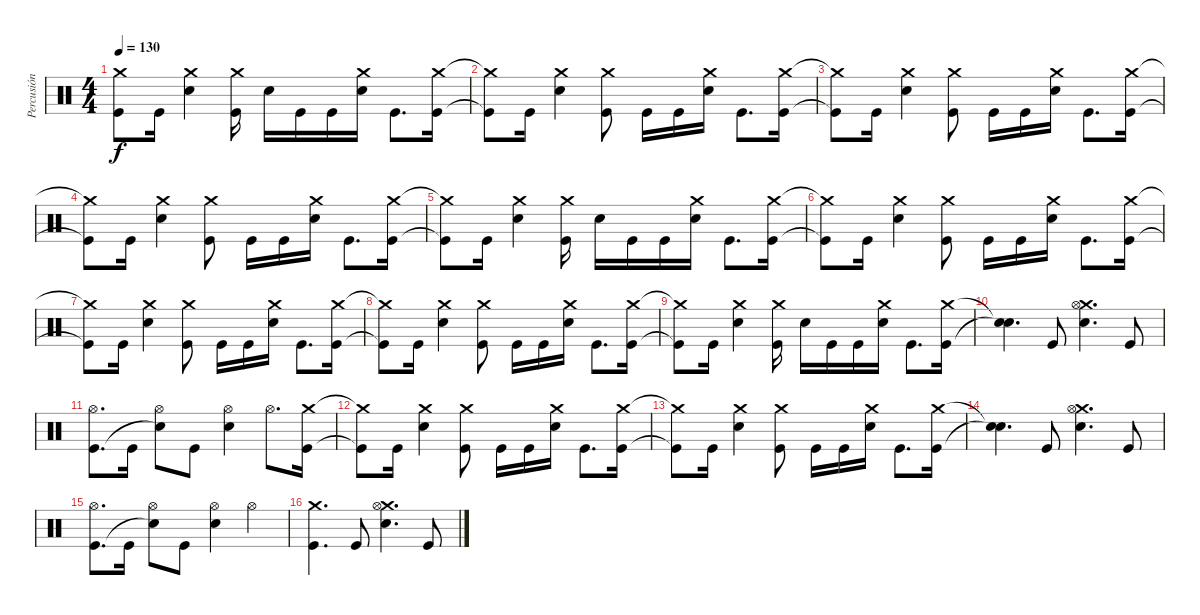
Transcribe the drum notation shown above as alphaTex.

\track ("Percusión" "Percusión") {instrument percussion}
\staff {score}
\articulation defaults
\ts (4 4)
\tempo 130
\clef neutral
\ks c
("Crash medium (hit)"{t} "Kick (hit)"{t}).8{dy f} "Kick (hit)".16 ("Crash medium (hit)" "Electric Snare (hit)").4 ("Crash medium (hit)" "Kick (hit)").16 "Electric Snare (hit)".16 "Kick (hit)".16 "Kick (hit)".16 ("Crash medium (hit)" "Electric Snare (hit)").16 "Kick (hit)".8{d} ("Crash medium (hit)" "Kick (hit)").16 |
("Crash medium (hit)"{t} "Kick (hit)"{t}).8 "Kick (hit)".16 ("Crash medium (hit)" "Electric Snare (hit)").4 ("Crash medium (hit)" "Kick (hit)").8 "Kick (hit)".16 "Kick (hit)".16 ("Crash medium (hit)" "Electric Snare (hit)").16 "Kick (hit)".8{d} ("Crash medium (hit)" "Kick (hit)").16 |
("Crash medium (hit)"{t} "Kick (hit)"{t}).8 "Kick (hit)".16 ("Crash medium (hit)" "Electric Snare (hit)").4 ("Crash medium (hit)" "Kick (hit)").8 "Kick (hit)".16 "Kick (hit)".16 ("Crash medium (hit)" "Electric Snare (hit)").16 "Kick (hit)".8{d} ("Crash medium (hit)" "Kick (hit)").16 |
("Crash medium (hit)"{t} "Kick (hit)"{t}).8 "Kick (hit)".16 ("Crash medium (hit)" "Electric Snare (hit)").4 ("Crash medium (hit)" "Kick (hit)").8 "Kick (hit)".16 "Kick (hit)".16 ("Crash medium (hit)" "Electric Snare (hit)").16 "Kick (hit)".8{d} ("Crash medium (hit)" "Kick (hit)").16 |
("Crash medium (hit)"{t} "Kick (hit)"{t}).8 "Kick (hit)".16 ("Crash medium (hit)" "Electric Snare (hit)").4 ("Crash medium (hit)" "Kick (hit)").16 "Electric Snare (hit)".16 "Kick (hit)".16 "Kick (hit)".16 ("Crash medium (hit)" "Electric Snare (hit)").16 "Kick (hit)".8{d} ("Crash medium (hit)" "Kick (hit)").16 |
("Crash medium (hit)"{t} "Kick (hit)"{t}).8 "Kick (hit)".16 ("Crash medium (hit)" "Electric Snare (hit)").4 ("Crash medium (hit)" "Kick (hit)").8 "Kick (hit)".16 "Kick (hit)".16 ("Crash medium (hit)" "Electric Snare (hit)").16 "Kick (hit)".8{d} ("Crash medium (hit)" "Kick (hit)").16 |
("Crash medium (hit)"{t} "Kick (hit)"{t}).8 "Kick (hit)".16 ("Crash medium (hit)" "Electric Snare (hit)").4 ("Crash medium (hit)" "Kick (hit)").8 "Kick (hit)".16 "Kick (hit)".16 ("Crash medium (hit)" "Electric Snare (hit)").16 "Kick (hit)".8{d} ("Crash medium (hit)" "Kick (hit)").16 |
("Crash medium (hit)"{t} "Kick (hit)"{t}).8 "Kick (hit)".16 ("Crash medium (hit)" "Electric Snare (hit)").4 ("Crash medium (hit)" "Kick (hit)").8 "Kick (hit)".16 "Kick (hit)".16 ("Crash medium (hit)" "Electric Snare (hit)").16 "Kick (hit)".8{d} ("Crash medium (hit)" "Kick (hit)").16 |
("Crash medium (hit)"{t} "Kick (hit)"{t}).8 "Kick (hit)".16 ("Crash medium (hit)" "Electric Snare (hit)").4 ("Crash medium (hit)" "Kick (hit)").16 "Electric Snare (hit)".16 "Kick (hit)".16 "Kick (hit)".16 ("Crash medium (hit)" "Electric Snare (hit)").16 "Kick (hit)".8{d} ("Crash medium (hit)" "Kick (hit)").16 |
("Snare (hit)"{t} "Snare (hit)"{t}).4{d} "Kick (hit)".8 ("Crash medium (hit)" "Hi-Hat (open)" "Electric Snare (hit)").4{d} "Kick (hit)".8 |
("Hi-Hat (open)" "Kick (hit)").8{d} "Kick (hit)".16 ("Hi-Hat (open)" "Snare (hit)"{t}).8 "Kick (hit)".8 ("Hi-Hat (open)" "Electric Snare (hit)").4 "Hi-Hat (open)".8{d} ("Crash medium (hit)" "Kick (hit)").16 |
("Crash medium (hit)"{t} "Kick (hit)"{t}).8 "Kick (hit)".16 ("Crash medium (hit)" "Electric Snare (hit)").4 ("Crash medium (hit)" "Kick (hit)").8 "Kick (hit)".16 "Kick (hit)".16 ("Crash medium (hit)" "Electric Snare (hit)").16 "Kick (hit)".8{d} ("Crash medium (hit)" "Kick (hit)").16 |
("Crash medium (hit)"{t} "Kick (hit)"{t}).8 "Kick (hit)".16 ("Crash medium (hit)" "Electric Snare (hit)").4 ("Crash medium (hit)" "Kick (hit)").8 "Kick (hit)".16 "Kick (hit)".16 ("Crash medium (hit)" "Electric Snare (hit)").16 "Kick (hit)".8{d} ("Crash medium (hit)" "Kick (hit)").16 |
("Snare (hit)"{t} "Snare (hit)"{t}).4{d} "Kick (hit)".8 ("Crash medium (hit)" "Hi-Hat (open)" "Electric Snare (hit)").4{d} "Kick (hit)".8 |
("Hi-Hat (open)" "Kick (hit)").8{d} "Kick (hit)".16 ("Hi-Hat (open)" "Snare (hit)"{t}).8 "Kick (hit)".8 ("Hi-Hat (open)" "Electric Snare (hit)").4 "Hi-Hat (open)".4 |
("Crash medium (hit)" "Kick (hit)").4{d} "Kick (hit)".8 ("Crash medium (hit)" "Hi-Hat (open)" "Electric Snare (hit)").4{d} "Kick (hit)".8
